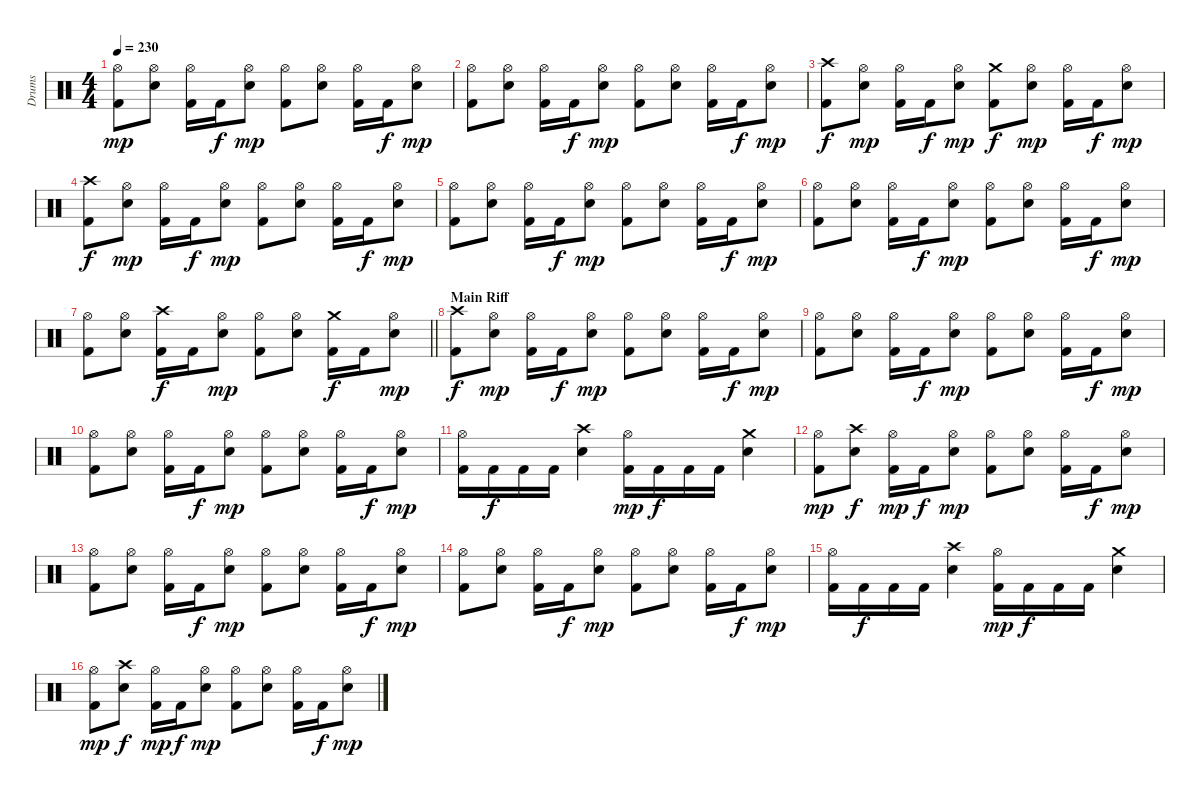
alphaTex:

\track ("Drums" "Drums") {instrument percussion}
\staff {score}
\articulation defaults
\ts (4 4)
\tempo 230
\clef neutral
\ks c
("Hi-Hat (open)" "Kick (hit) 2").8{dy mp} ("Hi-Hat (open)" "Snare (hit) 2").8 ("Hi-Hat (open)" "Kick (hit) 2").16 "Kick (hit) 2".16{dy f} ("Hi-Hat (open)" "Snare (hit) 2").8{dy mp} ("Hi-Hat (open)" "Kick (hit) 2").8 ("Hi-Hat (open)" "Snare (hit) 2").8 ("Hi-Hat (open)" "Kick (hit) 2").16 "Kick (hit) 2".16{dy f} ("Hi-Hat (open)" "Snare (hit) 2").8{dy mp} |
("Hi-Hat (open)" "Kick (hit) 2").8 ("Hi-Hat (open)" "Snare (hit) 2").8 ("Hi-Hat (open)" "Kick (hit) 2").16 "Kick (hit) 2".16{dy f} ("Hi-Hat (open)" "Snare (hit) 2").8{dy mp} ("Hi-Hat (open)" "Kick (hit) 2").8 ("Hi-Hat (open)" "Snare (hit) 2").8 ("Hi-Hat (open)" "Kick (hit) 2").16 "Kick (hit) 2".16{dy f} ("Hi-Hat (open)" "Snare (hit) 2").8{dy mp} |
("Crash high (hit)" "Kick (hit) 2").8{dy f} ("Hi-Hat (open)" "Snare (hit) 2").8{dy mp} ("Hi-Hat (open)" "Kick (hit) 2").16 "Kick (hit) 2".16{dy f} ("Hi-Hat (open)" "Snare (hit) 2").8{dy mp} ("Crash medium (hit)" "Kick (hit) 2").8{dy f} ("Hi-Hat (open)" "Snare (hit) 2").8{dy mp} ("Hi-Hat (open)" "Kick (hit) 2").16 "Kick (hit) 2".16{dy f} ("Hi-Hat (open)" "Snare (hit) 2").8{dy mp} |
("Crash high (hit)" "Kick (hit) 2").8{dy f} ("Hi-Hat (open)" "Snare (hit) 2").8{dy mp} ("Hi-Hat (open)" "Kick (hit) 2").16 "Kick (hit) 2".16{dy f} ("Hi-Hat (open)" "Snare (hit) 2").8{dy mp} ("Hi-Hat (open)" "Kick (hit) 2").8 ("Hi-Hat (open)" "Snare (hit) 2").8 ("Hi-Hat (open)" "Kick (hit) 2").16 "Kick (hit) 2".16{dy f} ("Hi-Hat (open)" "Snare (hit) 2").8{dy mp} |
("Hi-Hat (open)" "Kick (hit) 2").8 ("Hi-Hat (open)" "Snare (hit) 2").8 ("Hi-Hat (open)" "Kick (hit) 2").16 "Kick (hit) 2".16{dy f} ("Hi-Hat (open)" "Snare (hit) 2").8{dy mp} ("Hi-Hat (open)" "Kick (hit) 2").8 ("Hi-Hat (open)" "Snare (hit) 2").8 ("Hi-Hat (open)" "Kick (hit) 2").16 "Kick (hit) 2".16{dy f} ("Hi-Hat (open)" "Snare (hit) 2").8{dy mp} |
("Hi-Hat (open)" "Kick (hit) 2").8 ("Hi-Hat (open)" "Snare (hit) 2").8 ("Hi-Hat (open)" "Kick (hit) 2").16 "Kick (hit) 2".16{dy f} ("Hi-Hat (open)" "Snare (hit) 2").8{dy mp} ("Hi-Hat (open)" "Kick (hit) 2").8 ("Hi-Hat (open)" "Snare (hit) 2").8 ("Hi-Hat (open)" "Kick (hit) 2").16 "Kick (hit) 2".16{dy f} ("Hi-Hat (open)" "Snare (hit) 2").8{dy mp} |
\barLineRight lightlight
("Hi-Hat (open)" "Kick (hit) 2").8 ("Hi-Hat (open)" "Snare (hit) 2").8 ("Crash high (hit)" "Kick (hit) 2").16{dy f} "Kick (hit) 2".16 ("Hi-Hat (open)" "Snare (hit) 2").8{dy mp} ("Hi-Hat (open)" "Kick (hit) 2").8 ("Hi-Hat (open)" "Snare (hit) 2").8 ("Crash medium (hit)" "Kick (hit) 2").16{dy f} "Kick (hit) 2".16 ("Hi-Hat (open)" "Snare (hit) 2").8{dy mp} |
\section ("" "Main Riff")
("Crash high (hit)" "Kick (hit) 2").8{dy f} ("Hi-Hat (open)" "Snare (hit) 2").8{dy mp} ("Hi-Hat (open)" "Kick (hit) 2").16 "Kick (hit) 2".16{dy f} ("Hi-Hat (open)" "Snare (hit) 2").8{dy mp} ("Hi-Hat (open)" "Kick (hit) 2").8 ("Hi-Hat (open)" "Snare (hit) 2").8 ("Hi-Hat (open)" "Kick (hit) 2").16 "Kick (hit) 2".16{dy f} ("Hi-Hat (open)" "Snare (hit) 2").8{dy mp} |
("Hi-Hat (open)" "Kick (hit) 2").8 ("Hi-Hat (open)" "Snare (hit) 2").8 ("Hi-Hat (open)" "Kick (hit) 2").16 "Kick (hit) 2".16{dy f} ("Hi-Hat (open)" "Snare (hit) 2").8{dy mp} ("Hi-Hat (open)" "Kick (hit) 2").8 ("Hi-Hat (open)" "Snare (hit) 2").8 ("Hi-Hat (open)" "Kick (hit) 2").16 "Kick (hit) 2".16{dy f} ("Hi-Hat (open)" "Snare (hit) 2").8{dy mp} |
("Hi-Hat (open)" "Kick (hit) 2").8 ("Hi-Hat (open)" "Snare (hit) 2").8 ("Hi-Hat (open)" "Kick (hit) 2").16 "Kick (hit) 2".16{dy f} ("Hi-Hat (open)" "Snare (hit) 2").8{dy mp} ("Hi-Hat (open)" "Kick (hit) 2").8 ("Hi-Hat (open)" "Snare (hit) 2").8 ("Hi-Hat (open)" "Kick (hit) 2").16 "Kick (hit) 2".16{dy f} ("Hi-Hat (open)" "Snare (hit) 2").8{dy mp} |
("Hi-Hat (open)" "Kick (hit) 2").16 "Kick (hit) 2".16{dy f} "Kick (hit) 2".16 "Kick (hit) 2".16 ("Crash high (hit)" "Snare (hit) 2").4 ("Hi-Hat (open)" "Kick (hit) 2").16{dy mp} "Kick (hit) 2".16{dy f} "Kick (hit) 2".16 "Kick (hit) 2".16 ("Crash medium (hit)" "Snare (hit) 2").4 |
("Hi-Hat (open)" "Kick (hit) 2").8{dy mp} ("Crash high (hit)" "Snare (hit) 2").8{dy f} ("Hi-Hat (open)" "Kick (hit) 2").16{dy mp} "Kick (hit) 2".16{dy f} ("Hi-Hat (open)" "Snare (hit) 2").8{dy mp} ("Hi-Hat (open)" "Kick (hit) 2").8 ("Hi-Hat (open)" "Snare (hit) 2").8 ("Hi-Hat (open)" "Kick (hit) 2").16 "Kick (hit) 2".16{dy f} ("Hi-Hat (open)" "Snare (hit) 2").8{dy mp} |
("Hi-Hat (open)" "Kick (hit) 2").8 ("Hi-Hat (open)" "Snare (hit) 2").8 ("Hi-Hat (open)" "Kick (hit) 2").16 "Kick (hit) 2".16{dy f} ("Hi-Hat (open)" "Snare (hit) 2").8{dy mp} ("Hi-Hat (open)" "Kick (hit) 2").8 ("Hi-Hat (open)" "Snare (hit) 2").8 ("Hi-Hat (open)" "Kick (hit) 2").16 "Kick (hit) 2".16{dy f} ("Hi-Hat (open)" "Snare (hit) 2").8{dy mp} |
("Hi-Hat (open)" "Kick (hit) 2").8 ("Hi-Hat (open)" "Snare (hit) 2").8 ("Hi-Hat (open)" "Kick (hit) 2").16 "Kick (hit) 2".16{dy f} ("Hi-Hat (open)" "Snare (hit) 2").8{dy mp} ("Hi-Hat (open)" "Kick (hit) 2").8 ("Hi-Hat (open)" "Snare (hit) 2").8 ("Hi-Hat (open)" "Kick (hit) 2").16 "Kick (hit) 2".16{dy f} ("Hi-Hat (open)" "Snare (hit) 2").8{dy mp} |
("Hi-Hat (open)" "Kick (hit) 2").16 "Kick (hit) 2".16{dy f} "Kick (hit) 2".16 "Kick (hit) 2".16 ("Crash high (hit)" "Snare (hit) 2").4 ("Hi-Hat (open)" "Kick (hit) 2").16{dy mp} "Kick (hit) 2".16{dy f} "Kick (hit) 2".16 "Kick (hit) 2".16 ("Crash medium (hit)" "Snare (hit) 2").4 |
("Hi-Hat (open)" "Kick (hit) 2").8{dy mp} ("Crash high (hit)" "Snare (hit) 2").8{dy f} ("Hi-Hat (open)" "Kick (hit) 2").16{dy mp} "Kick (hit) 2".16{dy f} ("Hi-Hat (open)" "Snare (hit) 2").8{dy mp} ("Hi-Hat (open)" "Kick (hit) 2").8 ("Hi-Hat (open)" "Snare (hit) 2").8 ("Hi-Hat (open)" "Kick (hit) 2").16 "Kick (hit) 2".16{dy f} ("Hi-Hat (open)" "Snare (hit) 2").8{dy mp}
